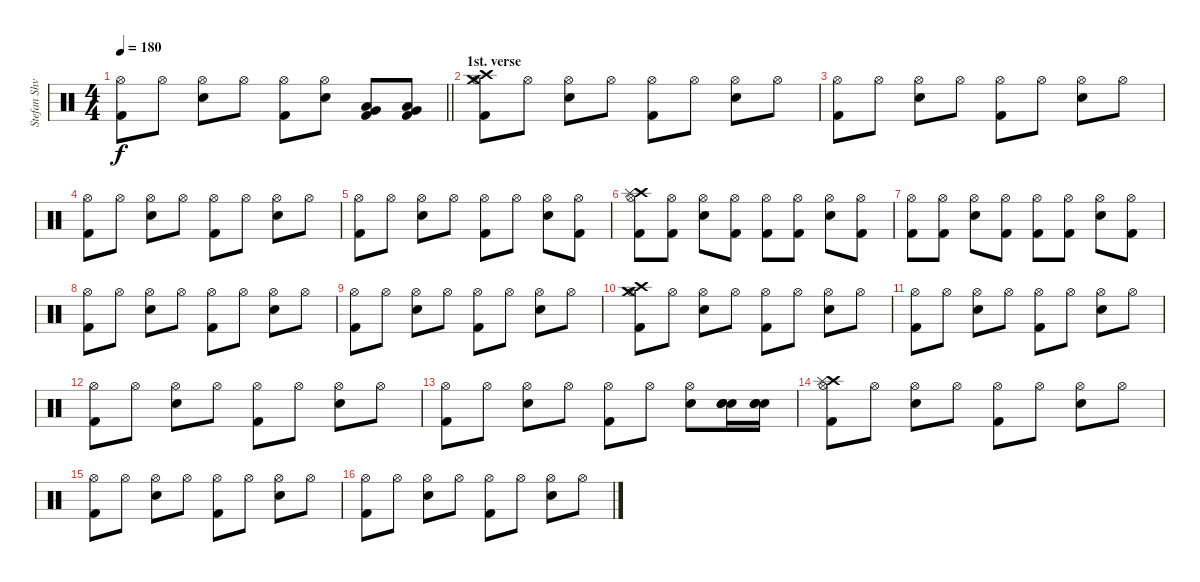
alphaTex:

\track ("Stefan Shvartsman" "Stefan Shv") {instrument percussion}
\staff {score}
\articulation defaults
\ts (4 4)
\tempo 180
\clef neutral
\barLineRight lightlight
\ks c
("Hi-Hat (open)" "Kick (hit) 2").8{dy f} "Hi-Hat (open)".8 ("Hi-Hat (open)" "Snare (hit) 2").8 "Hi-Hat (open)".8 ("Hi-Hat (open)" "Kick (hit) 2").8 ("Hi-Hat (open)" "Snare (hit) 2").8 ("Very Low Tom (hit)" "Low Tom (hit)" "Kick (hit) 2").8 ("Very Low Tom (hit)" "Low Tom (hit)" "Kick (hit) 2").8 |
\section ("" "1st. verse")
("Crash medium (hit)" "Hi-Hat (open)" "Kick (hit) 2" "Crash high (hit)").8 "Hi-Hat (open)".8 ("Hi-Hat (open)" "Snare (hit) 2").8 "Hi-Hat (open)".8 ("Hi-Hat (open)" "Kick (hit) 2").8 "Hi-Hat (open)".8 ("Hi-Hat (open)" "Snare (hit) 2").8 "Hi-Hat (open)".8 |
("Hi-Hat (open)" "Kick (hit) 2").8 "Hi-Hat (open)".8 ("Hi-Hat (open)" "Snare (hit) 2").8 "Hi-Hat (open)".8 ("Hi-Hat (open)" "Kick (hit) 2").8 "Hi-Hat (open)".8 ("Hi-Hat (open)" "Snare (hit) 2").8 "Hi-Hat (open)".8 |
("Hi-Hat (open)" "Kick (hit) 2").8 "Hi-Hat (open)".8 ("Hi-Hat (open)" "Snare (hit) 2").8 "Hi-Hat (open)".8 ("Hi-Hat (open)" "Kick (hit) 2").8 "Hi-Hat (open)".8 ("Hi-Hat (open)" "Snare (hit) 2").8 "Hi-Hat (open)".8 |
("Hi-Hat (open)" "Kick (hit) 2").8 "Hi-Hat (open)".8 ("Hi-Hat (open)" "Snare (hit) 2").8 "Hi-Hat (open)".8 ("Hi-Hat (open)" "Kick (hit) 2").8 "Hi-Hat (open)".8 ("Hi-Hat (open)" "Snare (hit) 2").8 ("Hi-Hat (open)" "Kick (hit) 2").8 |
("Hi-Hat (open)" "Kick (hit) 2" "Crash high (hit)" "Splash (hit)").8 ("Hi-Hat (open)" "Kick (hit) 2").8 ("Hi-Hat (open)" "Snare (hit) 2").8 ("Hi-Hat (open)" "Kick (hit) 2").8 ("Hi-Hat (open)" "Kick (hit) 2").8 ("Hi-Hat (open)" "Kick (hit) 2").8 ("Hi-Hat (open)" "Snare (hit) 2").8 ("Hi-Hat (open)" "Kick (hit) 2").8 |
("Hi-Hat (open)" "Kick (hit) 2").8 ("Hi-Hat (open)" "Kick (hit) 2").8 ("Hi-Hat (open)" "Snare (hit) 2").8 ("Hi-Hat (open)" "Kick (hit) 2").8 ("Hi-Hat (open)" "Kick (hit) 2").8 ("Hi-Hat (open)" "Kick (hit) 2").8 ("Hi-Hat (open)" "Snare (hit) 2").8 ("Hi-Hat (open)" "Kick (hit) 2").8 |
("Hi-Hat (open)" "Kick (hit) 2").8 "Hi-Hat (open)".8 ("Hi-Hat (open)" "Snare (hit) 2").8 "Hi-Hat (open)".8 ("Hi-Hat (open)" "Kick (hit) 2").8 "Hi-Hat (open)".8 ("Hi-Hat (open)" "Snare (hit) 2").8 "Hi-Hat (open)".8 |
("Hi-Hat (open)" "Kick (hit) 2").8 "Hi-Hat (open)".8 ("Hi-Hat (open)" "Snare (hit) 2").8 "Hi-Hat (open)".8 ("Hi-Hat (open)" "Kick (hit) 2").8 "Hi-Hat (open)".8 ("Hi-Hat (open)" "Snare (hit) 2").8 "Hi-Hat (open)".8 |
("Crash medium (hit)" "Hi-Hat (open)" "Kick (hit) 2" "Crash high (hit)").8 "Hi-Hat (open)".8 ("Hi-Hat (open)" "Snare (hit) 2").8 "Hi-Hat (open)".8 ("Hi-Hat (open)" "Kick (hit) 2").8 "Hi-Hat (open)".8 ("Hi-Hat (open)" "Snare (hit) 2").8 "Hi-Hat (open)".8 |
("Hi-Hat (open)" "Kick (hit) 2").8 "Hi-Hat (open)".8 ("Hi-Hat (open)" "Snare (hit) 2").8 "Hi-Hat (open)".8 ("Hi-Hat (open)" "Kick (hit) 2").8 "Hi-Hat (open)".8 ("Hi-Hat (open)" "Snare (hit) 2").8 "Hi-Hat (open)".8 |
("Hi-Hat (open)" "Kick (hit) 2").8 "Hi-Hat (open)".8 ("Hi-Hat (open)" "Snare (hit) 2").8 "Hi-Hat (open)".8 ("Hi-Hat (open)" "Kick (hit) 2").8 "Hi-Hat (open)".8 ("Hi-Hat (open)" "Snare (hit) 2").8 "Hi-Hat (open)".8 |
("Hi-Hat (open)" "Kick (hit) 2").8 "Hi-Hat (open)".8 ("Hi-Hat (open)" "Snare (hit) 2").8 "Hi-Hat (open)".8 ("Hi-Hat (open)" "Kick (hit) 2").8 "Hi-Hat (open)".8 ("Hi-Hat (open)" "Snare (hit) 2").8 ("Snare (hit) 2" "Snare (hit) 2" "Snare (hit) 2").16 ("Snare (hit) 2" "Snare (hit) 2" "Snare (hit) 2").16 |
("Hi-Hat (open)" "Kick (hit) 2" "Crash high (hit)" "Splash (hit)").8 "Hi-Hat (open)".8 ("Hi-Hat (open)" "Snare (hit) 2").8 "Hi-Hat (open)".8 ("Hi-Hat (open)" "Kick (hit) 2").8 "Hi-Hat (open)".8 ("Hi-Hat (open)" "Snare (hit) 2").8 "Hi-Hat (open)".8 |
("Hi-Hat (open)" "Kick (hit) 2").8 "Hi-Hat (open)".8 ("Hi-Hat (open)" "Snare (hit) 2").8 "Hi-Hat (open)".8 ("Hi-Hat (open)" "Kick (hit) 2").8 "Hi-Hat (open)".8 ("Hi-Hat (open)" "Snare (hit) 2").8 "Hi-Hat (open)".8 |
("Hi-Hat (open)" "Kick (hit) 2").8 "Hi-Hat (open)".8 ("Hi-Hat (open)" "Snare (hit) 2").8 "Hi-Hat (open)".8 ("Hi-Hat (open)" "Kick (hit) 2").8 "Hi-Hat (open)".8 ("Hi-Hat (open)" "Snare (hit) 2").8 "Hi-Hat (open)".8
